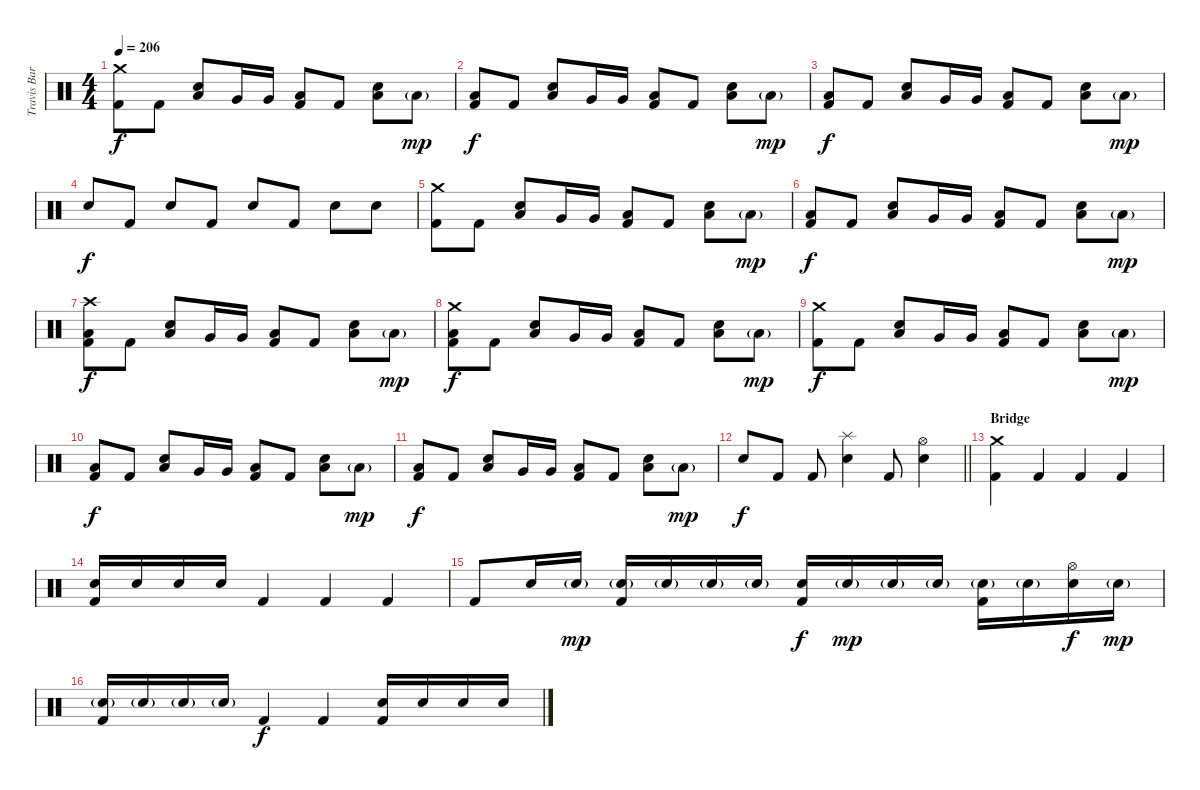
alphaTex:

\track ("Travis Barker - Drums" "Travis Bar") {instrument percussion}
\staff {score}
\articulation defaults
\ts (4 4)
\tempo 206
\clef neutral
\ks c
("Crash medium (hit)" "Kick (hit) 2").8{dy f} "Kick (hit) 2".8 ("Low Floor Tom (hit)" "Electric Snare (hit)").8 "Very Low Tom (hit)".16 "Very Low Tom (hit)".16 ("Low Floor Tom (hit)" "Kick (hit) 2").8 "Kick (hit) 2".8 ("Low Floor Tom (hit)" "Electric Snare (hit)").8 "Low Floor Tom (hit)"{g}.8{dy mp} |
("Low Floor Tom (hit)" "Kick (hit) 2").8{dy f} "Kick (hit) 2".8 ("Low Floor Tom (hit)" "Electric Snare (hit)").8 "Very Low Tom (hit)".16 "Very Low Tom (hit)".16 ("Low Floor Tom (hit)" "Kick (hit) 2").8 "Kick (hit) 2".8 ("Low Floor Tom (hit)" "Electric Snare (hit)").8 "Low Floor Tom (hit)"{g}.8{dy mp} |
("Low Floor Tom (hit)" "Kick (hit) 2").8{dy f} "Kick (hit) 2".8 ("Low Floor Tom (hit)" "Electric Snare (hit)").8 "Very Low Tom (hit)".16 "Very Low Tom (hit)".16 ("Low Floor Tom (hit)" "Kick (hit) 2").8 "Kick (hit) 2".8 ("Low Floor Tom (hit)" "Electric Snare (hit)").8 "Low Floor Tom (hit)"{g}.8{dy mp} |
"Electric Snare (hit)".8{dy f} "Kick (hit) 2".8 "Electric Snare (hit)".8 "Kick (hit) 2".8 "Electric Snare (hit)".8 "Kick (hit) 2".8 "Electric Snare (hit)".8 "Electric Snare (hit)".8 |
("Crash medium (hit)" "Kick (hit) 2").8 "Kick (hit) 2".8 ("Low Floor Tom (hit)" "Electric Snare (hit)").8 "Very Low Tom (hit)".16 "Very Low Tom (hit)".16 ("Low Floor Tom (hit)" "Kick (hit) 2").8 "Kick (hit) 2".8 ("Low Floor Tom (hit)" "Electric Snare (hit)").8 "Low Floor Tom (hit)"{g}.8{dy mp} |
("Low Floor Tom (hit)" "Kick (hit) 2").8{dy f} "Kick (hit) 2".8 ("Low Floor Tom (hit)" "Electric Snare (hit)").8 "Very Low Tom (hit)".16 "Very Low Tom (hit)".16 ("Low Floor Tom (hit)" "Kick (hit) 2").8 "Kick (hit) 2".8 ("Low Floor Tom (hit)" "Electric Snare (hit)").8 "Low Floor Tom (hit)"{g}.8{dy mp} |
("Crash high (hit)" "Low Floor Tom (hit)" "Kick (hit) 2").8{dy f} "Kick (hit) 2".8 ("Low Floor Tom (hit)" "Electric Snare (hit)").8 "Very Low Tom (hit)".16 "Very Low Tom (hit)".16 ("Low Floor Tom (hit)" "Kick (hit) 2").8 "Kick (hit) 2".8 ("Low Floor Tom (hit)" "Electric Snare (hit)").8 "Low Floor Tom (hit)"{g}.8{dy mp} |
("Crash medium (hit)" "Low Floor Tom (hit)" "Kick (hit) 2").8{dy f} "Kick (hit) 2".8 ("Low Floor Tom (hit)" "Electric Snare (hit)").8 "Very Low Tom (hit)".16 "Very Low Tom (hit)".16 ("Low Floor Tom (hit)" "Kick (hit) 2").8 "Kick (hit) 2".8 ("Low Floor Tom (hit)" "Electric Snare (hit)").8 "Low Floor Tom (hit)"{g}.8{dy mp} |
("Crash medium (hit)" "Kick (hit) 2").8{dy f} "Kick (hit) 2".8 ("Low Floor Tom (hit)" "Electric Snare (hit)").8 "Very Low Tom (hit)".16 "Very Low Tom (hit)".16 ("Low Floor Tom (hit)" "Kick (hit) 2").8 "Kick (hit) 2".8 ("Low Floor Tom (hit)" "Electric Snare (hit)").8 "Low Floor Tom (hit)"{g}.8{dy mp} |
("Low Floor Tom (hit)" "Kick (hit) 2").8{dy f} "Kick (hit) 2".8 ("Low Floor Tom (hit)" "Electric Snare (hit)").8 "Very Low Tom (hit)".16 "Very Low Tom (hit)".16 ("Low Floor Tom (hit)" "Kick (hit) 2").8 "Kick (hit) 2".8 ("Low Floor Tom (hit)" "Electric Snare (hit)").8 "Low Floor Tom (hit)"{g}.8{dy mp} |
("Low Floor Tom (hit)" "Kick (hit) 2").8{dy f} "Kick (hit) 2".8 ("Low Floor Tom (hit)" "Electric Snare (hit)").8 "Very Low Tom (hit)".16 "Very Low Tom (hit)".16 ("Low Floor Tom (hit)" "Kick (hit) 2").8 "Kick (hit) 2".8 ("Low Floor Tom (hit)" "Electric Snare (hit)").8 "Low Floor Tom (hit)"{g}.8{dy mp} |
\barLineRight lightlight "Electric Snare (hit)".8{dy f} "Kick (hit) 2".8 "Kick (hit) 2".8
("Splash (hit)" "Electric Snare (hit)").4 "Kick (hit) 2".8 ("Hi-Hat (open)" "Electric Snare (hit)").4 |
\section ("" "Bridge")
("Crash medium (hit)" "Kick (hit) 2").4 "Kick (hit) 2".4 "Kick (hit) 2".4 "Kick (hit) 2".4 |
("Electric Snare (hit)" "Kick (hit) 2").16 "Electric Snare (hit)".16 "Electric Snare (hit)".16 "Electric Snare (hit)".16 "Kick (hit) 2".4 "Kick (hit) 2".4 "Kick (hit) 2".4 |
"Kick (hit) 2".8 "Electric Snare (hit)".16 "Electric Snare (hit)"{g}.16{dy mp} ("Electric Snare (hit)"{g} "Kick (hit) 2").16 "Electric Snare (hit)"{g}.16 "Electric Snare (hit)"{g}.16 "Electric Snare (hit)"{g}.16 ("Electric Snare (hit)" "Kick (hit) 2").16{dy f} "Electric Snare (hit)"{g}.16{dy mp} "Electric Snare (hit)"{g}.16 "Electric Snare (hit)"{g}.16 ("Electric Snare (hit)"{g} "Kick (hit) 2").16 "Electric Snare (hit)"{g}.16 ("Hi-Hat (open)" "Electric Snare (hit)").16{dy f} "Electric Snare (hit)"{g}.16{dy mp} |
("Electric Snare (hit)"{g} "Kick (hit) 2").16 "Electric Snare (hit)"{g}.16 "Electric Snare (hit)"{g}.16 "Electric Snare (hit)"{g}.16 "Kick (hit) 2".4{dy f} "Kick (hit) 2".4 ("Electric Snare (hit)" "Kick (hit) 2").16 "Electric Snare (hit)".16 "Electric Snare (hit)".16 "Electric Snare (hit)".16
